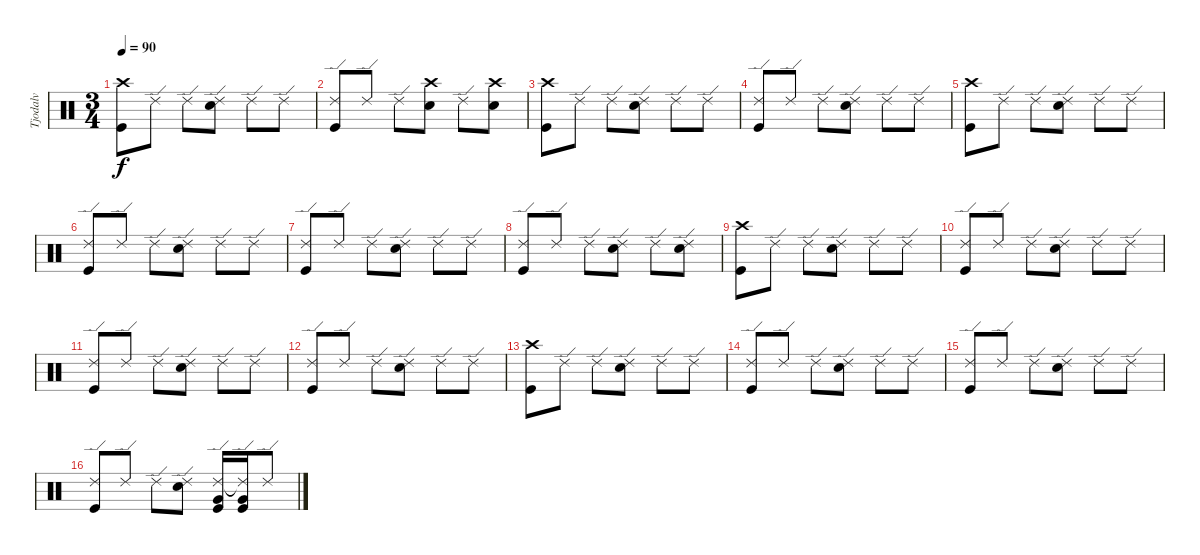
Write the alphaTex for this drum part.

\track ("Tjodalv" "Tjodalv") {instrument percussion}
\staff {score}
\articulation defaults
\ts (3 4)
\tempo 90
\clef neutral
\ks c
("Crash high (hit)" "Kick (hit)").8{dy f} "Ride (edge) 2".8 "Ride (edge) 2".8 ("Ride (edge) 2" "Snare (hit) 2").8 "Ride (edge) 2".8 "Ride (edge) 2".8 |
("Ride (edge) 2" "Kick (hit)").8 "Ride (edge) 2".8 "Ride (edge) 2".8 ("Crash high (hit)" "Snare (hit) 2").8 "Ride (edge) 2".8 ("Crash high (hit)" "Snare (hit) 2").8 |
("Crash high (hit)" "Kick (hit)").8 "Ride (edge) 2".8 "Ride (edge) 2".8 ("Ride (edge) 2" "Snare (hit) 2").8 "Ride (edge) 2".8 "Ride (edge) 2".8 |
("Ride (edge) 2" "Kick (hit)").8 "Ride (edge) 2".8 "Ride (edge) 2".8 ("Ride (edge) 2" "Snare (hit) 2").8 "Ride (edge) 2".8 "Ride (edge) 2".8 |
("Crash high (hit)" "Kick (hit)").8 "Ride (edge) 2".8 "Ride (edge) 2".8 ("Ride (edge) 2" "Snare (hit) 2").8 "Ride (edge) 2".8 "Ride (edge) 2".8 |
("Ride (edge) 2" "Kick (hit)").8 "Ride (edge) 2".8 "Ride (edge) 2".8 ("Ride (edge) 2" "Snare (hit) 2").8 "Ride (edge) 2".8 "Ride (edge) 2".8 |
("Ride (edge) 2" "Kick (hit)").8 "Ride (edge) 2".8 "Ride (edge) 2".8 ("Ride (edge) 2" "Snare (hit) 2").8 "Ride (edge) 2".8 "Ride (edge) 2".8 |
("Ride (edge) 2" "Kick (hit)").8 "Ride (edge) 2".8 "Ride (edge) 2".8 ("Ride (edge) 2" "Snare (hit) 2").8 "Ride (edge) 2".8 ("Ride (edge) 2" "Snare (hit) 2").8 |
("Crash high (hit)" "Kick (hit)").8 "Ride (edge) 2".8 "Ride (edge) 2".8 ("Ride (edge) 2" "Snare (hit) 2").8 "Ride (edge) 2".8 "Ride (edge) 2".8 |
("Ride (edge) 2" "Kick (hit)").8 "Ride (edge) 2".8 "Ride (edge) 2".8 ("Ride (edge) 2" "Snare (hit) 2").8 "Ride (edge) 2".8 "Ride (edge) 2".8 |
("Ride (edge) 2" "Kick (hit)").8 "Ride (edge) 2".8 "Ride (edge) 2".8 ("Ride (edge) 2" "Snare (hit) 2").8 "Ride (edge) 2".8 "Ride (edge) 2".8 |
("Ride (edge) 2" "Kick (hit)").8 "Ride (edge) 2".8 "Ride (edge) 2".8 ("Ride (edge) 2" "Snare (hit) 2").8 "Ride (edge) 2".8 "Ride (edge) 2".8 |
("Crash high (hit)" "Kick (hit)").8 "Ride (edge) 2".8 "Ride (edge) 2".8 ("Ride (edge) 2" "Snare (hit) 2").8 "Ride (edge) 2".8 "Ride (edge) 2".8 |
("Ride (edge) 2" "Kick (hit)").8 "Ride (edge) 2".8 "Ride (edge) 2".8 ("Ride (edge) 2" "Snare (hit) 2").8 "Ride (edge) 2".8 "Ride (edge) 2".8 |
("Ride (edge) 2" "Kick (hit)").8 "Ride (edge) 2".8 "Ride (edge) 2".8 ("Ride (edge) 2" "Snare (hit) 2").8 "Ride (edge) 2".8 "Ride (edge) 2".8 |
("Ride (edge) 2" "Kick (hit)").8 "Ride (edge) 2".8 "Ride (edge) 2".8 ("Ride (edge) 2" "Snare (hit) 2").8 ("Ride (edge) 2" "Very Low Tom (hit)" "Kick (hit)").16 ("Ride (edge) 2"{t} "Very Low Tom (hit)" "Kick (hit)").16 "Ride (edge) 2".8
